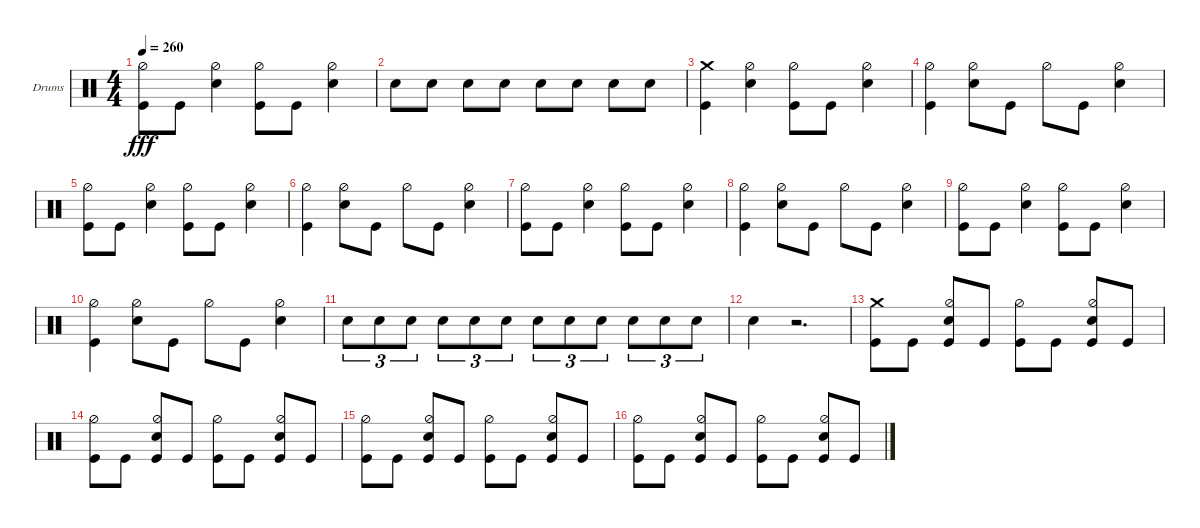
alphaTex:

\defaultSystemsLayout 4
\bracketExtendMode groupsimilarinstruments
\firstSystemTrackNameOrientation horizontal
\otherSystemsTrackNameOrientation horizontal
\track ("Stefan Schwarzmann" "Drums") {instrument percussion}
\staff {score}
\articulation defaults
\ts (4 4)
\tempo 260
\clef neutral
\ks c
("Kick (hit)" "Hi-Hat (half)").8{dy fff} "Kick (hit)".8 ("Snare (hit) 2" "Hi-Hat (half)").4 ("Kick (hit)" "Hi-Hat (half)").8 "Kick (hit)".8 ("Snare (hit) 2" "Hi-Hat (half)").4 |
"Snare (hit) 2".8 "Snare (hit) 2".8 "Snare (hit) 2".8 "Snare (hit) 2".8 "Snare (hit) 2".8 "Snare (hit) 2".8 "Snare (hit) 2".8 "Snare (hit) 2".8 |
("Kick (hit)" "Crash medium (hit)").4 ("Snare (hit) 2" "Hi-Hat (half)").4 ("Kick (hit)" "Hi-Hat (half)").8 "Kick (hit)".8 ("Snare (hit) 2" "Hi-Hat (half)").4 |
("Kick (hit)" "Hi-Hat (half)").4 ("Snare (hit) 2" "Hi-Hat (half)").8 "Kick (hit)".8 "Hi-Hat (half)".8 "Kick (hit)".8 ("Snare (hit) 2" "Hi-Hat (half)").4 |
("Kick (hit)" "Hi-Hat (half)").8 "Kick (hit)".8 ("Snare (hit) 2" "Hi-Hat (half)").4 ("Kick (hit)" "Hi-Hat (half)").8 "Kick (hit)".8 ("Snare (hit) 2" "Hi-Hat (half)").4 |
("Kick (hit)" "Hi-Hat (half)").4 ("Snare (hit) 2" "Hi-Hat (half)").8 "Kick (hit)".8 "Hi-Hat (half)".8 "Kick (hit)".8 ("Snare (hit) 2" "Hi-Hat (half)").4 |
("Kick (hit)" "Hi-Hat (half)").8 "Kick (hit)".8 ("Snare (hit) 2" "Hi-Hat (half)").4 ("Kick (hit)" "Hi-Hat (half)").8 "Kick (hit)".8 ("Snare (hit) 2" "Hi-Hat (half)").4 |
("Kick (hit)" "Hi-Hat (half)").4 ("Snare (hit) 2" "Hi-Hat (half)").8 "Kick (hit)".8 "Hi-Hat (half)".8 "Kick (hit)".8 ("Snare (hit) 2" "Hi-Hat (half)").4 |
("Kick (hit)" "Hi-Hat (half)").8 "Kick (hit)".8 ("Snare (hit) 2" "Hi-Hat (half)").4 ("Kick (hit)" "Hi-Hat (half)").8 "Kick (hit)".8 ("Snare (hit) 2" "Hi-Hat (half)").4 |
("Kick (hit)" "Hi-Hat (half)").4 ("Snare (hit) 2" "Hi-Hat (half)").8 "Kick (hit)".8 "Hi-Hat (half)".8 "Kick (hit)".8 ("Snare (hit) 2" "Hi-Hat (half)").4 |
"Snare (hit) 2".8{tu (3 2)} "Snare (hit) 2".8{tu (3 2)} "Snare (hit) 2".8{tu (3 2)} "Snare (hit) 2".8{tu (3 2)} "Snare (hit) 2".8{tu (3 2)} "Snare (hit) 2".8{tu (3 2)} "Snare (hit) 2".8{tu (3 2)} "Snare (hit) 2".8{tu (3 2)} "Snare (hit) 2".8{tu (3 2)} "Snare (hit) 2".8{tu (3 2)} "Snare (hit) 2".8{tu (3 2)} "Snare (hit) 2".8{tu (3 2)} |
"Snare (hit) 2".4 r.2{d} |
("Kick (hit)" "Crash medium (hit)").8 "Kick (hit)".8 ("Kick (hit)" "Snare (hit) 2" "Hi-Hat (half)").8 "Kick (hit)".8 ("Kick (hit)" "Hi-Hat (half)").8 "Kick (hit)".8 ("Kick (hit)" "Snare (hit) 2" "Hi-Hat (half)").8 "Kick (hit)".8 |
("Kick (hit)" "Hi-Hat (half)").8 "Kick (hit)".8 ("Kick (hit)" "Snare (hit) 2" "Hi-Hat (half)").8 "Kick (hit)".8 ("Kick (hit)" "Hi-Hat (half)").8 "Kick (hit)".8 ("Kick (hit)" "Snare (hit) 2" "Hi-Hat (half)").8 "Kick (hit)".8 |
("Kick (hit)" "Hi-Hat (half)").8 "Kick (hit)".8 ("Kick (hit)" "Snare (hit) 2" "Hi-Hat (half)").8 "Kick (hit)".8 ("Kick (hit)" "Hi-Hat (half)").8 "Kick (hit)".8 ("Kick (hit)" "Snare (hit) 2" "Hi-Hat (half)").8 "Kick (hit)".8 |
("Kick (hit)" "Hi-Hat (half)").8 "Kick (hit)".8 ("Kick (hit)" "Snare (hit) 2" "Hi-Hat (half)").8 "Kick (hit)".8 ("Kick (hit)" "Hi-Hat (half)").8 "Kick (hit)".8 ("Kick (hit)" "Snare (hit) 2" "Hi-Hat (half)").8 "Kick (hit)".8
